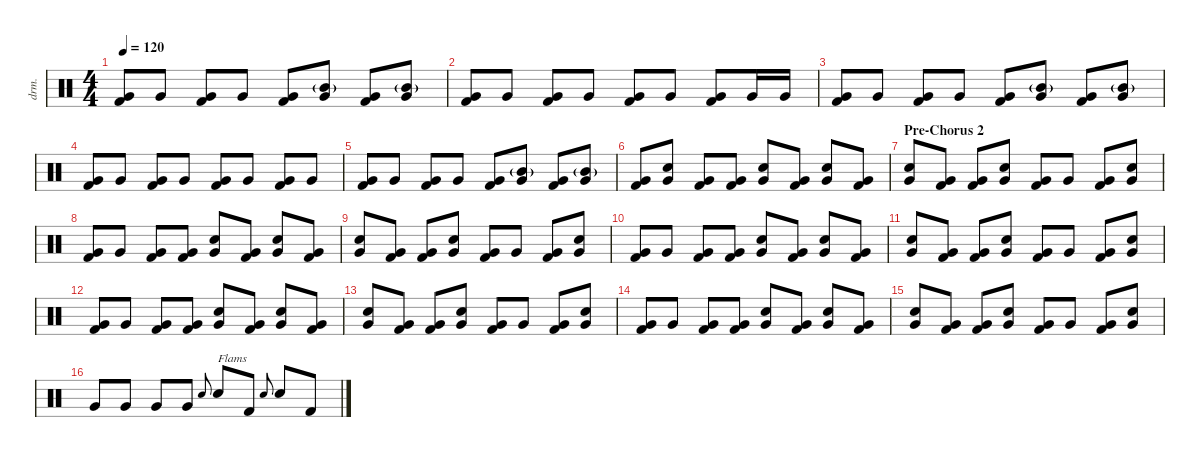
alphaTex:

\defaultSystemsLayout 4
\hideDynamics
\bracketExtendMode nobrackets
\otherSystemsTrackNameOrientation horizontal
\track ("Jimmy Chamberlin" "drm.") {instrument percussion}
\staff {score}
\articulation defaults
\ts (4 4)
\tempo 120
\clef neutral
\ks c
("Very Low Tom (hit)" "Kick (hit) 2").8{dy mf beam Up} "Very Low Tom (hit)".8{beam Up} ("Very Low Tom (hit)" "Kick (hit) 2").8{beam Up} "Very Low Tom (hit)".8{beam Up} ("Very Low Tom (hit)" "Kick (hit) 2").8{beam Up} ("Very Low Tom (hit)" "Mid Tom (hit)"{g}).8{beam Up} ("Very Low Tom (hit)" "Kick (hit) 2").8{beam Up} ("Very Low Tom (hit)" "Mid Tom (hit)"{g}).8{beam Up} |
("Very Low Tom (hit)" "Kick (hit) 2").8{beam Up} "Very Low Tom (hit)".8{beam Up} ("Very Low Tom (hit)" "Kick (hit) 2").8{beam Up} "Very Low Tom (hit)".8{beam Up} ("Very Low Tom (hit)" "Kick (hit) 2").8{beam Up} "Very Low Tom (hit)".8{beam Up} ("Very Low Tom (hit)" "Kick (hit) 2").8{beam Up} "Very Low Tom (hit)".16{beam Up} "Very Low Tom (hit)".16{beam Up} |
("Very Low Tom (hit)" "Kick (hit) 2").8{beam Up} "Very Low Tom (hit)".8{beam Up} ("Very Low Tom (hit)" "Kick (hit) 2").8{beam Up} "Very Low Tom (hit)".8{beam Up} ("Very Low Tom (hit)" "Kick (hit) 2").8{beam Up} ("Very Low Tom (hit)" "Mid Tom (hit)"{g}).8{beam Up} ("Very Low Tom (hit)" "Kick (hit) 2").8{beam Up} ("Very Low Tom (hit)" "Mid Tom (hit)"{g}).8{beam Up} |
("Very Low Tom (hit)" "Kick (hit) 2").8{beam Up} "Very Low Tom (hit)".8{beam Up} ("Very Low Tom (hit)" "Kick (hit) 2").8{beam Up} "Very Low Tom (hit)".8{beam Up} ("Very Low Tom (hit)" "Kick (hit) 2").8{beam Up} "Very Low Tom (hit)".8{beam Up} ("Very Low Tom (hit)" "Kick (hit) 2").8{beam Up} "Very Low Tom (hit)".8{beam Up} |
("Very Low Tom (hit)" "Kick (hit) 2").8{beam Up} "Very Low Tom (hit)".8{beam Up} ("Very Low Tom (hit)" "Kick (hit) 2").8{beam Up} "Very Low Tom (hit)".8{beam Up} ("Very Low Tom (hit)" "Kick (hit) 2").8{beam Up} ("Very Low Tom (hit)" "Mid Tom (hit)"{g}).8{beam Up} ("Very Low Tom (hit)" "Kick (hit) 2").8{beam Up} ("Very Low Tom (hit)" "Mid Tom (hit)"{g}).8{beam Up} |
("Very Low Tom (hit)" "Kick (hit) 2").8{beam Up} ("Snare (hit) 2" "Very Low Tom (hit)").8{beam Up} ("Kick (hit) 2" "Very Low Tom (hit)").8{beam Up} ("Very Low Tom (hit)" "Kick (hit) 2").8{beam Up} ("Very Low Tom (hit)" "Snare (hit) 2").8{beam Up} ("Very Low Tom (hit)" "Kick (hit) 2").8{beam Up} ("Very Low Tom (hit)" "Snare (hit) 2").8{beam Up} ("Very Low Tom (hit)" "Kick (hit) 2").8{beam Up} |
\section ("" "Pre-Chorus 2")
("Snare (hit) 2" "Very Low Tom (hit)").8{beam Up} ("Kick (hit) 2" "Very Low Tom (hit)").8{beam Up} ("Kick (hit) 2" "Very Low Tom (hit)").8{beam Up} ("Snare (hit) 2" "Very Low Tom (hit)").8{beam Up} ("Kick (hit) 2" "Very Low Tom (hit)").8{beam Up} "Very Low Tom (hit)".8{beam Up} ("Very Low Tom (hit)" "Kick (hit) 2").8{beam Up} ("Snare (hit) 2" "Very Low Tom (hit)").8{beam Up} |
("Kick (hit) 2" "Very Low Tom (hit)").8{beam Up} "Very Low Tom (hit)".8{beam Up} ("Kick (hit) 2" "Very Low Tom (hit)").8{beam Up} ("Very Low Tom (hit)" "Kick (hit) 2").8{beam Up} ("Very Low Tom (hit)" "Snare (hit) 2").8{beam Up} ("Kick (hit) 2" "Very Low Tom (hit)").8{beam Up} ("Very Low Tom (hit)" "Snare (hit) 2").8{beam Up} ("Kick (hit) 2" "Very Low Tom (hit)").8{beam Up} |
("Snare (hit) 2" "Very Low Tom (hit)").8{beam Up} ("Kick (hit) 2" "Very Low Tom (hit)").8{beam Up} ("Kick (hit) 2" "Very Low Tom (hit)").8{beam Up} ("Snare (hit) 2" "Very Low Tom (hit)").8{beam Up} ("Kick (hit) 2" "Very Low Tom (hit)").8{beam Up} "Very Low Tom (hit)".8{beam Up} ("Very Low Tom (hit)" "Kick (hit) 2").8{beam Up} ("Snare (hit) 2" "Very Low Tom (hit)").8{beam Up} |
("Kick (hit) 2" "Very Low Tom (hit)").8{beam Up} "Very Low Tom (hit)".8{beam Up} ("Kick (hit) 2" "Very Low Tom (hit)").8{beam Up} ("Very Low Tom (hit)" "Kick (hit) 2").8{beam Up} ("Very Low Tom (hit)" "Snare (hit) 2").8{beam Up} ("Kick (hit) 2" "Very Low Tom (hit)").8{beam Up} ("Very Low Tom (hit)" "Snare (hit) 2").8{beam Up} ("Kick (hit) 2" "Very Low Tom (hit)").8{beam Up} |
("Snare (hit) 2" "Very Low Tom (hit)").8{beam Up} ("Kick (hit) 2" "Very Low Tom (hit)").8{beam Up} ("Kick (hit) 2" "Very Low Tom (hit)").8{beam Up} ("Snare (hit) 2" "Very Low Tom (hit)").8{beam Up} ("Kick (hit) 2" "Very Low Tom (hit)").8{beam Up} "Very Low Tom (hit)".8{beam Up} ("Very Low Tom (hit)" "Kick (hit) 2").8{beam Up} ("Snare (hit) 2" "Very Low Tom (hit)").8{beam Up} |
("Kick (hit) 2" "Very Low Tom (hit)").8{beam Up} "Very Low Tom (hit)".8{beam Up} ("Kick (hit) 2" "Very Low Tom (hit)").8{beam Up} ("Very Low Tom (hit)" "Kick (hit) 2").8{beam Up} ("Very Low Tom (hit)" "Snare (hit) 2").8{beam Up} ("Kick (hit) 2" "Very Low Tom (hit)").8{beam Up} ("Very Low Tom (hit)" "Snare (hit) 2").8{beam Up} ("Kick (hit) 2" "Very Low Tom (hit)").8{beam Up} |
("Snare (hit) 2" "Very Low Tom (hit)").8{beam Up} ("Kick (hit) 2" "Very Low Tom (hit)").8{beam Up} ("Kick (hit) 2" "Very Low Tom (hit)").8{beam Up} ("Snare (hit) 2" "Very Low Tom (hit)").8{beam Up} ("Kick (hit) 2" "Very Low Tom (hit)").8{beam Up} "Very Low Tom (hit)".8{beam Up} ("Very Low Tom (hit)" "Kick (hit) 2").8{beam Up} ("Snare (hit) 2" "Very Low Tom (hit)").8{beam Up} |
("Kick (hit) 2" "Very Low Tom (hit)").8{beam Up} "Very Low Tom (hit)".8{beam Up} ("Kick (hit) 2" "Very Low Tom (hit)").8{beam Up} ("Very Low Tom (hit)" "Kick (hit) 2").8{beam Up} ("Very Low Tom (hit)" "Snare (hit) 2").8{beam Up} ("Kick (hit) 2" "Very Low Tom (hit)").8{beam Up} ("Very Low Tom (hit)" "Snare (hit) 2").8{beam Up} ("Kick (hit) 2" "Very Low Tom (hit)").8{beam Up} |
("Snare (hit) 2" "Very Low Tom (hit)").8{beam Up} ("Kick (hit) 2" "Very Low Tom (hit)").8{beam Up} ("Kick (hit) 2" "Very Low Tom (hit)").8{beam Up} ("Snare (hit) 2" "Very Low Tom (hit)").8{beam Up} ("Kick (hit) 2" "Very Low Tom (hit)").8{beam Up} "Very Low Tom (hit)".8{beam Up} ("Very Low Tom (hit)" "Kick (hit) 2").8{beam Up} ("Snare (hit) 2" "Very Low Tom (hit)").8{beam Up} |
"Very Low Tom (hit)".8{beam Up} "Very Low Tom (hit)".8{beam Up} "Very Low Tom (hit)".8{beam Up} "Very Low Tom (hit)".8{beam Up} "Snare (hit) 2".8{gr onbeat beam Up} "Snare (hit) 2".8{txt "Flams" beam Up} "Kick (hit) 2".8{beam Up} "Snare (hit) 2".8{gr onbeat beam Up} "Snare (hit) 2".8{beam Up} "Kick (hit) 2".8{beam Up}
